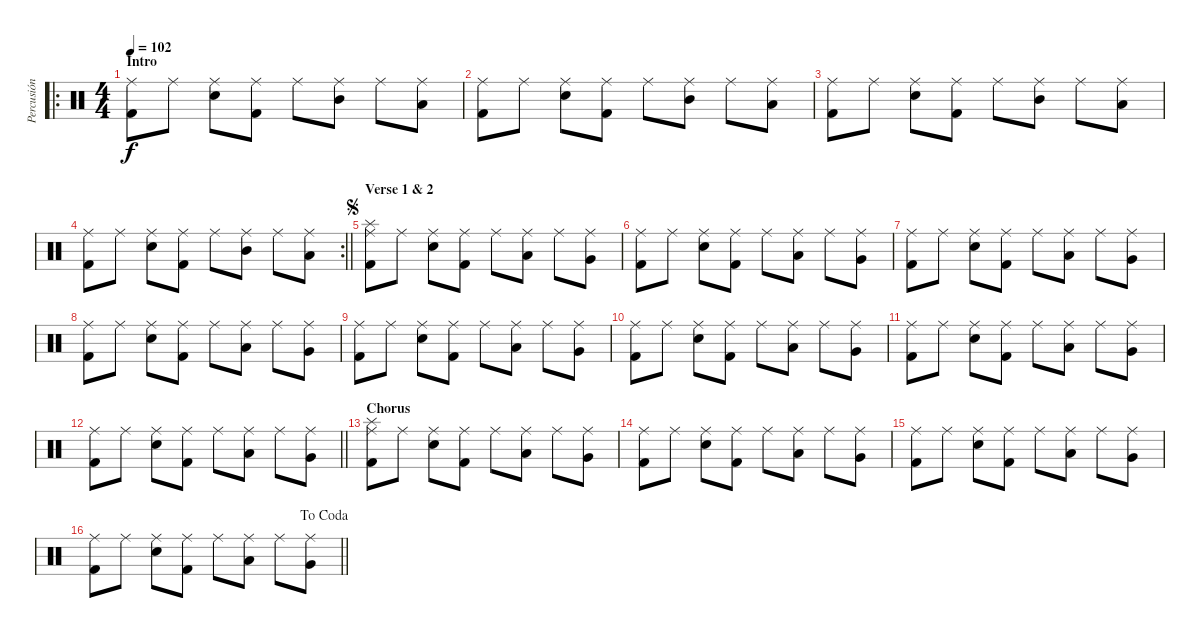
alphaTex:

\track ("Percusión" "Percusión") {instrument percussion}
\staff {score}
\articulation defaults
\ro
\ts (4 4)
\section ("" "Intro")
\tempo 102
\clef neutral
\ks c
("Ride (middle)" "Kick (hit) 2").8{dy f} "Ride (middle)".8 ("Ride (middle)" "Snare (hit) 2").8 ("Ride (middle)" "Kick (hit) 2").8 "Ride (middle)".8 ("Ride (middle)" "Mid Tom (hit)").8 "Ride (middle)".8 ("Ride (middle)" "Low Tom (hit)").8 |
("Ride (middle)" "Kick (hit) 2").8 "Ride (middle)".8 ("Ride (middle)" "Snare (hit) 2").8 ("Ride (middle)" "Kick (hit) 2").8 "Ride (middle)".8 ("Ride (middle)" "Mid Tom (hit)").8 "Ride (middle)".8 ("Ride (middle)" "Low Tom (hit)").8 |
("Ride (middle)" "Kick (hit) 2").8 "Ride (middle)".8 ("Ride (middle)" "Snare (hit) 2").8 ("Ride (middle)" "Kick (hit) 2").8 "Ride (middle)".8 ("Ride (middle)" "Mid Tom (hit)").8 "Ride (middle)".8 ("Ride (middle)" "Low Tom (hit)").8 |
\rc 2
\barLineRight lightlight
("Ride (middle)" "Kick (hit) 2").8 "Ride (middle)".8 ("Ride (middle)" "Snare (hit) 2").8 ("Ride (middle)" "Kick (hit) 2").8 "Ride (middle)".8 ("Ride (middle)" "Mid Tom (hit)").8 "Ride (middle)".8 ("Ride (middle)" "Low Tom (hit)").8 |
\section ("" "Verse 1 & 2")
\jump segno
("Splash (hit)" "Ride (middle)" "Kick (hit) 2").8 "Ride (middle)".8 ("Ride (middle)" "Snare (hit) 2").8 ("Ride (middle)" "Kick (hit) 2").8 "Ride (middle)".8 ("Ride (middle)" "Low Tom (hit)").8 "Ride (middle)".8 ("Ride (middle)" "Very Low Tom (hit)").8 |
("Ride (middle)" "Kick (hit) 2").8 "Ride (middle)".8 ("Ride (middle)" "Snare (hit) 2").8 ("Ride (middle)" "Kick (hit) 2").8 "Ride (middle)".8 ("Ride (middle)" "Low Tom (hit)").8 "Ride (middle)".8 ("Ride (middle)" "Very Low Tom (hit)").8 |
("Ride (middle)" "Kick (hit) 2").8 "Ride (middle)".8 ("Ride (middle)" "Snare (hit) 2").8 ("Ride (middle)" "Kick (hit) 2").8 "Ride (middle)".8 ("Ride (middle)" "Low Tom (hit)").8 "Ride (middle)".8 ("Ride (middle)" "Very Low Tom (hit)").8 |
("Ride (middle)" "Kick (hit) 2").8 "Ride (middle)".8 ("Ride (middle)" "Snare (hit) 2").8 ("Ride (middle)" "Kick (hit) 2").8 "Ride (middle)".8 ("Ride (middle)" "Low Tom (hit)").8 "Ride (middle)".8 ("Ride (middle)" "Very Low Tom (hit)").8 |
("Ride (middle)" "Kick (hit) 2").8 "Ride (middle)".8 ("Ride (middle)" "Snare (hit) 2").8 ("Ride (middle)" "Kick (hit) 2").8 "Ride (middle)".8 ("Ride (middle)" "Low Tom (hit)").8 "Ride (middle)".8 ("Ride (middle)" "Very Low Tom (hit)").8 |
("Ride (middle)" "Kick (hit) 2").8 "Ride (middle)".8 ("Ride (middle)" "Snare (hit) 2").8 ("Ride (middle)" "Kick (hit) 2").8 "Ride (middle)".8 ("Ride (middle)" "Low Tom (hit)").8 "Ride (middle)".8 ("Ride (middle)" "Very Low Tom (hit)").8 |
("Ride (middle)" "Kick (hit) 2").8 "Ride (middle)".8 ("Ride (middle)" "Snare (hit) 2").8 ("Ride (middle)" "Kick (hit) 2").8 "Ride (middle)".8 ("Ride (middle)" "Low Tom (hit)").8 "Ride (middle)".8 ("Ride (middle)" "Very Low Tom (hit)").8 |
\barLineRight lightlight
("Ride (middle)" "Kick (hit) 2").8 "Ride (middle)".8 ("Ride (middle)" "Snare (hit) 2").8 ("Ride (middle)" "Kick (hit) 2").8 "Ride (middle)".8 ("Ride (middle)" "Low Tom (hit)").8 "Ride (middle)".8 ("Ride (middle)" "Very Low Tom (hit)").8 |
\section ("" "Chorus")
("Splash (hit)" "Ride (middle)" "Kick (hit) 2").8 "Ride (middle)".8 ("Ride (middle)" "Snare (hit) 2").8 ("Ride (middle)" "Kick (hit) 2").8 "Ride (middle)".8 ("Ride (middle)" "Low Tom (hit)").8 "Ride (middle)".8 ("Ride (middle)" "Very Low Tom (hit)").8 |
("Ride (middle)" "Kick (hit) 2").8 "Ride (middle)".8 ("Ride (middle)" "Snare (hit) 2").8 ("Ride (middle)" "Kick (hit) 2").8 "Ride (middle)".8 ("Ride (middle)" "Low Tom (hit)").8 "Ride (middle)".8 ("Ride (middle)" "Very Low Tom (hit)").8 |
("Ride (middle)" "Kick (hit) 2").8 "Ride (middle)".8 ("Ride (middle)" "Snare (hit) 2").8 ("Ride (middle)" "Kick (hit) 2").8 "Ride (middle)".8 ("Ride (middle)" "Low Tom (hit)").8 "Ride (middle)".8 ("Ride (middle)" "Very Low Tom (hit)").8 |
\jump dacoda
\barLineRight lightlight
("Ride (middle)" "Kick (hit) 2").8 "Ride (middle)".8 ("Ride (middle)" "Snare (hit) 2").8 ("Ride (middle)" "Kick (hit) 2").8 "Ride (middle)".8 ("Ride (middle)" "Low Tom (hit)").8 "Ride (middle)".8 ("Ride (middle)" "Very Low Tom (hit)").8
